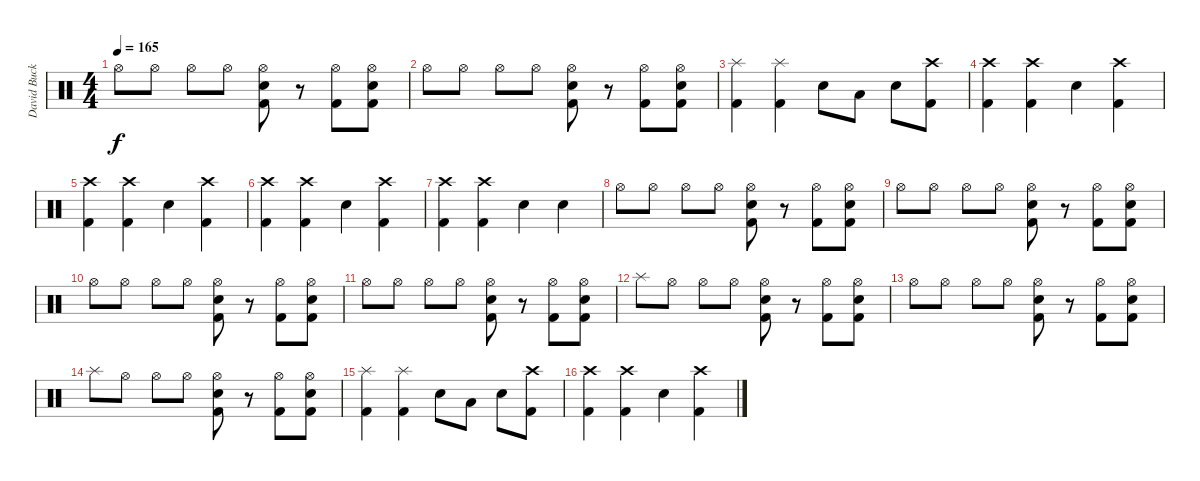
\track ("David Buckner" "David Buck") {instrument percussion}
\staff {score}
\articulation defaults
\ts (4 4)
\tempo 165
\clef neutral
\ks c "Hi-Hat (open)".8{dy f} "Hi-Hat (open)".8 "Hi-Hat (open)".8 "Hi-Hat (open)".8
("Hi-Hat (open)" "Snare (hit) 2" "Kick (hit) 2").8 r.8 ("Hi-Hat (open)" "Kick (hit) 2").8 ("Hi-Hat (open)" "Snare (hit) 2" "Kick (hit) 2").8 |
"Hi-Hat (open)".8 "Hi-Hat (open)".8 "Hi-Hat (open)".8 "Hi-Hat (open)".8 ("Hi-Hat (open)" "Snare (hit) 2" "Kick (hit) 2").8 r.8 ("Hi-Hat (open)" "Kick (hit) 2").8 ("Hi-Hat (open)" "Snare (hit) 2" "Kick (hit) 2").8 |
("Splash (hit)" "Kick (hit) 2").4 ("Splash (hit)" "Kick (hit) 2").4 "Snare (hit) 2".8 "Low Tom (hit)".8 "Snare (hit) 2".8 ("Crash high (hit)" "Kick (hit) 2").8 |
("Crash high (hit)" "Kick (hit) 2").4 ("Crash high (hit)" "Kick (hit) 2").4 "Snare (hit) 2".4 ("Crash high (hit)" "Kick (hit) 2").4 |
("Crash high (hit)" "Kick (hit) 2").4 ("Crash high (hit)" "Kick (hit) 2").4 "Snare (hit) 2".4 ("Crash high (hit)" "Kick (hit) 2").4 |
("Crash high (hit)" "Kick (hit) 2").4 ("Crash high (hit)" "Kick (hit) 2").4 "Snare (hit) 2".4 ("Crash high (hit)" "Kick (hit) 2").4 |
("Crash high (hit)" "Kick (hit) 2").4 ("Crash high (hit)" "Kick (hit) 2").4 "Snare (hit) 2".4 "Snare (hit) 2".4 |
"Hi-Hat (open)".8 "Hi-Hat (open)".8 "Hi-Hat (open)".8 "Hi-Hat (open)".8 ("Hi-Hat (open)" "Snare (hit) 2" "Kick (hit) 2").8 r.8 ("Hi-Hat (open)" "Kick (hit) 2").8 ("Hi-Hat (open)" "Snare (hit) 2" "Kick (hit) 2").8 |
"Hi-Hat (open)".8 "Hi-Hat (open)".8 "Hi-Hat (open)".8 "Hi-Hat (open)".8 ("Hi-Hat (open)" "Snare (hit) 2" "Kick (hit) 2").8 r.8 ("Hi-Hat (open)" "Kick (hit) 2").8 ("Hi-Hat (open)" "Snare (hit) 2" "Kick (hit) 2").8 |
"Hi-Hat (open)".8 "Hi-Hat (open)".8 "Hi-Hat (open)".8 "Hi-Hat (open)".8 ("Hi-Hat (open)" "Snare (hit) 2" "Kick (hit) 2").8 r.8 ("Hi-Hat (open)" "Kick (hit) 2").8 ("Hi-Hat (open)" "Snare (hit) 2" "Kick (hit) 2").8 |
"Hi-Hat (open)".8 "Hi-Hat (open)".8 "Hi-Hat (open)".8 "Hi-Hat (open)".8 ("Hi-Hat (open)" "Snare (hit) 2" "Kick (hit) 2").8 r.8 ("Hi-Hat (open)" "Kick (hit) 2").8 ("Hi-Hat (open)" "Snare (hit) 2" "Kick (hit) 2").8 |
"Splash (hit)".8 "Hi-Hat (open)".8 "Hi-Hat (open)".8 "Hi-Hat (open)".8 ("Hi-Hat (open)" "Snare (hit) 2" "Kick (hit) 2").8 r.8 ("Hi-Hat (open)" "Kick (hit) 2").8 ("Hi-Hat (open)" "Snare (hit) 2" "Kick (hit) 2").8 |
"Hi-Hat (open)".8 "Hi-Hat (open)".8 "Hi-Hat (open)".8 "Hi-Hat (open)".8 ("Hi-Hat (open)" "Snare (hit) 2" "Kick (hit) 2").8 r.8 ("Hi-Hat (open)" "Kick (hit) 2").8 ("Hi-Hat (open)" "Snare (hit) 2" "Kick (hit) 2").8 |
"Splash (hit)".8 "Hi-Hat (open)".8 "Hi-Hat (open)".8 "Hi-Hat (open)".8 ("Hi-Hat (open)" "Snare (hit) 2" "Kick (hit) 2").8 r.8 ("Hi-Hat (open)" "Kick (hit) 2").8 ("Hi-Hat (open)" "Snare (hit) 2" "Kick (hit) 2").8 |
("Splash (hit)" "Kick (hit) 2").4 ("Splash (hit)" "Kick (hit) 2").4 "Snare (hit) 2".8 "Low Tom (hit)".8 "Snare (hit) 2".8 ("Crash high (hit)" "Kick (hit) 2").8 |
("Crash high (hit)" "Kick (hit) 2").4 ("Crash high (hit)" "Kick (hit) 2").4 "Snare (hit) 2".4 ("Crash high (hit)" "Kick (hit) 2").4
